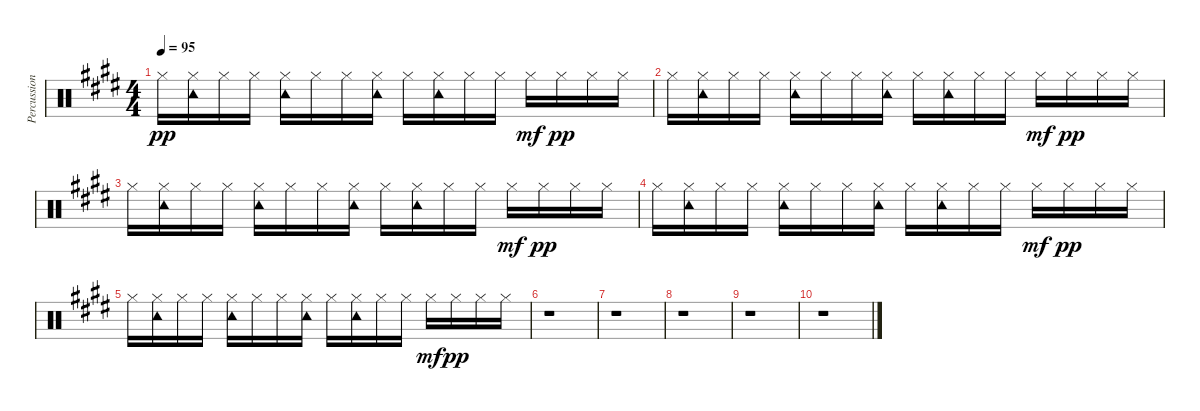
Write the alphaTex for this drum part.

\track ("Percussion" "Percussion") {instrument percussion}
\staff {score}
\articulation defaults
\ts (4 4)
\tempo 95
\clef neutral
\ks e "Hi-Hat (closed)".16{dy pp}
("Hi-Hat (closed)" "Tambourine (hit)").16 "Hi-Hat (closed)".16 "Hi-Hat (closed)".16 ("Hi-Hat (closed)" "Tambourine (hit)").16 "Hi-Hat (closed)".16 "Hi-Hat (closed)".16 ("Hi-Hat (closed)" "Tambourine (hit)").16 "Hi-Hat (closed)".16 ("Hi-Hat (closed)" "Tambourine (hit)").16 "Hi-Hat (closed)".16 "Hi-Hat (closed)".16 "Hi-Hat (closed)".16{dy mf} "Hi-Hat (closed)".16{dy pp} "Hi-Hat (closed)".16 "Hi-Hat (closed)".16 |
"Hi-Hat (closed)".16 ("Hi-Hat (closed)" "Tambourine (hit)").16 "Hi-Hat (closed)".16 "Hi-Hat (closed)".16 ("Hi-Hat (closed)" "Tambourine (hit)").16 "Hi-Hat (closed)".16 "Hi-Hat (closed)".16 ("Hi-Hat (closed)" "Tambourine (hit)").16 "Hi-Hat (closed)".16 ("Hi-Hat (closed)" "Tambourine (hit)").16 "Hi-Hat (closed)".16 "Hi-Hat (closed)".16 "Hi-Hat (closed)".16{dy mf} "Hi-Hat (closed)".16{dy pp} "Hi-Hat (closed)".16 "Hi-Hat (closed)".16 |
"Hi-Hat (closed)".16 ("Hi-Hat (closed)" "Tambourine (hit)").16 "Hi-Hat (closed)".16 "Hi-Hat (closed)".16 ("Hi-Hat (closed)" "Tambourine (hit)").16 "Hi-Hat (closed)".16 "Hi-Hat (closed)".16 ("Hi-Hat (closed)" "Tambourine (hit)").16 "Hi-Hat (closed)".16 ("Hi-Hat (closed)" "Tambourine (hit)").16 "Hi-Hat (closed)".16 "Hi-Hat (closed)".16 "Hi-Hat (closed)".16{dy mf} "Hi-Hat (closed)".16{dy pp} "Hi-Hat (closed)".16 "Hi-Hat (closed)".16 |
"Hi-Hat (closed)".16 ("Hi-Hat (closed)" "Tambourine (hit)").16 "Hi-Hat (closed)".16 "Hi-Hat (closed)".16 ("Hi-Hat (closed)" "Tambourine (hit)").16 "Hi-Hat (closed)".16 "Hi-Hat (closed)".16 ("Hi-Hat (closed)" "Tambourine (hit)").16 "Hi-Hat (closed)".16 ("Hi-Hat (closed)" "Tambourine (hit)").16 "Hi-Hat (closed)".16 "Hi-Hat (closed)".16 "Hi-Hat (closed)".16{dy mf} "Hi-Hat (closed)".16{dy pp} "Hi-Hat (closed)".16 "Hi-Hat (closed)".16 |
"Hi-Hat (closed)".16 ("Hi-Hat (closed)" "Tambourine (hit)").16 "Hi-Hat (closed)".16 "Hi-Hat (closed)".16 ("Hi-Hat (closed)" "Tambourine (hit)").16 "Hi-Hat (closed)".16 "Hi-Hat (closed)".16 ("Hi-Hat (closed)" "Tambourine (hit)").16 "Hi-Hat (closed)".16 ("Hi-Hat (closed)" "Tambourine (hit)").16 "Hi-Hat (closed)".16 "Hi-Hat (closed)".16 "Hi-Hat (closed)".16{dy mf} "Hi-Hat (closed)".16{dy pp} "Hi-Hat (closed)".16 "Hi-Hat (closed)".16 |
r.1 |
r.1 |
r.1 |
r.1 |
r.1
